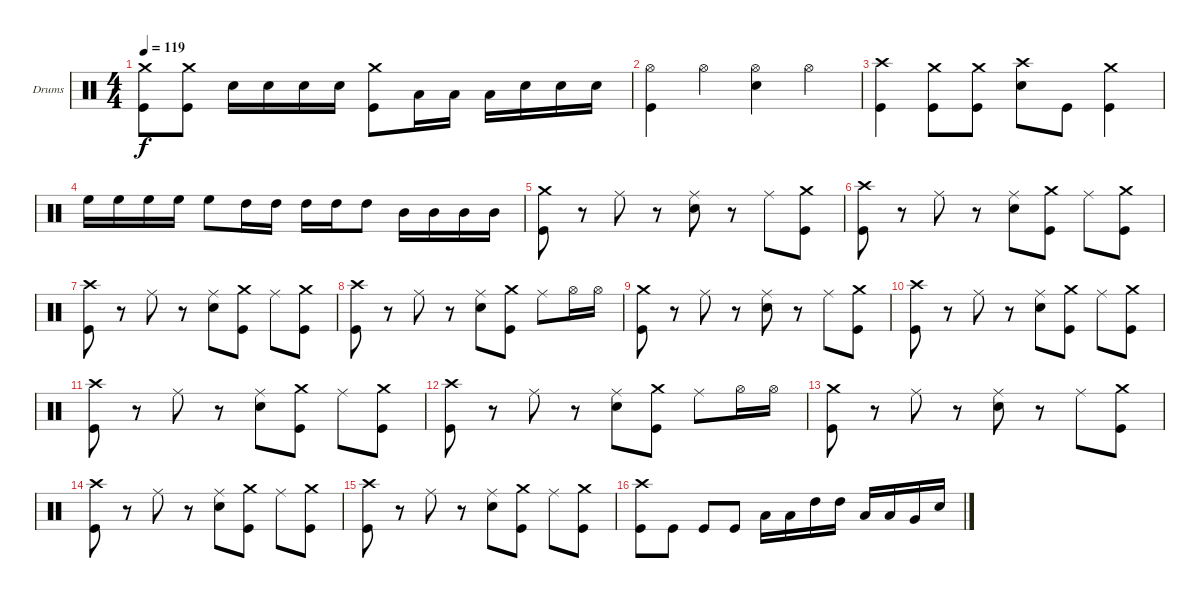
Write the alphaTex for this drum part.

\bracketExtendMode groupsimilarinstruments
\firstSystemTrackNameOrientation horizontal
\otherSystemsTrackNameOrientation horizontal
\track ("Drumkit" "Drums") {instrument percussion}
\staff {score}
\articulation defaults
\ts (4 4)
\tempo 119
\clef neutral
\ks c
("Crash medium (hit)" "Kick (hit)").8{dy f} ("Crash medium (hit)" "Kick (hit)").8 "Snare (hit) 2".16 "Snare (hit) 2".16 "Snare (hit) 2".16 "Snare (hit) 2".16 ("Crash medium (hit)" "Kick (hit)").8 "Low Tom (hit)".16 "Low Tom (hit)".16 "Low Tom (hit)".16 "Snare (hit) 2".16 "Snare (hit) 2".16 "Snare (hit) 2".16 |
("Hi-Hat (open)" "Kick (hit)").4 "Hi-Hat (open)".4 ("Hi-Hat (open)" "Snare (hit) 2").4 "Hi-Hat (open)".4 |
("Crash high (hit)" "Kick (hit)").4 ("Crash medium (hit)" "Kick (hit)").8 ("Crash medium (hit)" "Kick (hit)").8 ("Crash high (hit)" "Snare (hit) 2").8 "Kick (hit)".8 ("Crash medium (hit)" "Kick (hit)").4 |
"High Floor Tom (hit)".16 "High Floor Tom (hit)".16 "High Floor Tom (hit)".16 "High Floor Tom (hit)".16 "High Floor Tom (hit)".8 "High Tom (hit)".16 "High Tom (hit)".16 "High Tom (hit)".16 "High Tom (hit)".16 "High Tom (hit)".8 "Mid Tom (hit)".16 "Mid Tom (hit)".16 "Mid Tom (hit)".16 "Mid Tom (hit)".16 |
("Crash medium (hit)" "Kick (hit)").8 r.8 "Ride (middle)".8 r.8 ("Ride (middle)" "Snare (hit) 2").8 r.8 "Ride (middle)".8 ("Crash medium (hit)" "Kick (hit)").8 |
("Crash high (hit)" "Kick (hit)").8 r.8 "Ride (middle)".8 r.8 ("Ride (middle)" "Snare (hit) 2").8 ("Crash medium (hit)" "Kick (hit)").8 "Ride (middle)".8 ("Crash medium (hit)" "Kick (hit)").8 |
("Crash high (hit)" "Kick (hit)").8 r.8 "Ride (middle)".8 r.8 ("Ride (middle)" "Snare (hit) 2").8 ("Crash medium (hit)" "Kick (hit)").8 "Ride (middle)".8 ("Crash medium (hit)" "Kick (hit)").8 |
("Crash high (hit)" "Kick (hit)").8 r.8 "Ride (middle)".8 r.8 ("Ride (middle)" "Snare (hit) 2").8 ("Crash medium (hit)" "Kick (hit)").8 "Ride (middle)".8 "Hi-Hat (open)".16 "Hi-Hat (open)".16 |
("Crash medium (hit)" "Kick (hit)").8 r.8 "Ride (middle)".8 r.8 ("Ride (middle)" "Snare (hit) 2").8 r.8 "Ride (middle)".8 ("Crash medium (hit)" "Kick (hit)").8 |
("Crash high (hit)" "Kick (hit)").8 r.8 "Ride (middle)".8 r.8 ("Ride (middle)" "Snare (hit) 2").8 ("Crash medium (hit)" "Kick (hit)").8 "Ride (middle)".8 ("Crash medium (hit)" "Kick (hit)").8 |
("Crash high (hit)" "Kick (hit)").8 r.8 "Ride (middle)".8 r.8 ("Ride (middle)" "Snare (hit) 2").8 ("Crash medium (hit)" "Kick (hit)").8 "Ride (middle)".8 ("Crash medium (hit)" "Kick (hit)").8 |
("Crash high (hit)" "Kick (hit)").8 r.8 "Ride (middle)".8 r.8 ("Ride (middle)" "Snare (hit) 2").8 ("Crash medium (hit)" "Kick (hit)").8 "Ride (middle)".8 "Hi-Hat (open)".16 "Hi-Hat (open)".16 |
("Crash medium (hit)" "Kick (hit)").8 r.8 "Ride (middle)".8 r.8 ("Ride (middle)" "Snare (hit) 2").8 r.8 "Ride (middle)".8 ("Crash medium (hit)" "Kick (hit)").8 |
("Crash high (hit)" "Kick (hit)").8 r.8 "Ride (middle)".8 r.8 ("Ride (middle)" "Snare (hit) 2").8 ("Crash medium (hit)" "Kick (hit)").8 "Ride (middle)".8 ("Crash medium (hit)" "Kick (hit)").8 |
("Crash high (hit)" "Kick (hit)").8 r.8 "Ride (middle)".8 r.8 ("Ride (middle)" "Snare (hit) 2").8 ("Crash medium (hit)" "Kick (hit)").8 "Ride (middle)".8 ("Crash medium (hit)" "Kick (hit)").8 |
("Crash high (hit)" "Kick (hit)").8 "Kick (hit)".8 "Kick (hit)".8 "Kick (hit)".8 "Low Tom (hit)".16 "Low Tom (hit)".16 "High Tom (hit)".16 "High Tom (hit)".16 "Low Tom (hit)".16 "Low Tom (hit)".16 "Very Low Tom (hit)".16 "Snare (hit) 2".16
